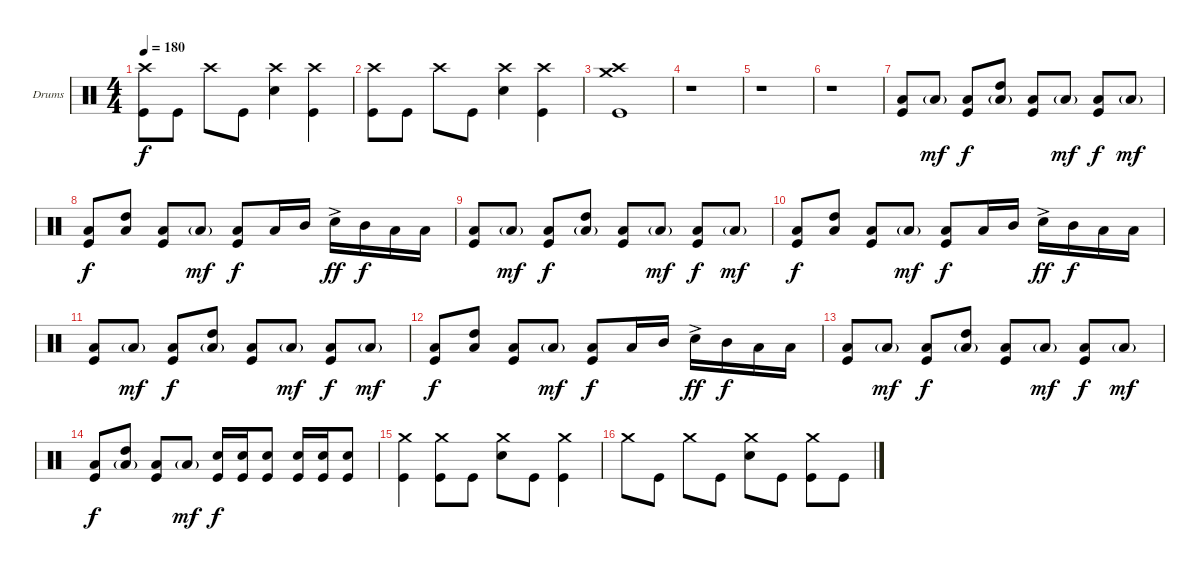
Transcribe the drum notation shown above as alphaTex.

\defaultSystemsLayout 4
\bracketExtendMode groupsimilarinstruments
\firstSystemTrackNameOrientation horizontal
\otherSystemsTrackNameOrientation horizontal
\track ("Барабаны" "Drums") {instrument percussion}
\staff {score}
\articulation defaults
\ts (4 4)
\tempo 180
\clef neutral
\scale
0.333333
\ks c
("Crash high (hit)" "Kick (hit)").8{dy f} "Kick (hit)".8 "Crash high (hit)".8 "Kick (hit)".8 ("Crash high (hit)" "Snare (hit) 2").4 ("Crash high (hit)" "Kick (hit)").4 |
\scale
0.333333 ("Crash high (hit)" "Kick (hit)").8 "Kick (hit)".8 "Crash high (hit)".8 "Kick (hit)".8 ("Crash high (hit)" "Snare (hit) 2").4 ("Crash high (hit)" "Kick (hit)").4 |
\scale
0.333333 ("Crash medium (hit)" "Crash high (hit)" "Kick (hit)").1 |
\scale
0.333333 r.1 |
\scale
0.333333 r.1 |
\scale
0.333333 r.1 |
\scale
0.333333 ("Low Tom (hit)" "Kick (hit)").8 "Low Tom (hit)"{g}.8{dy mf} ("Low Tom (hit)" "Kick (hit)").8{dy f} ("Low Tom (hit)"{g} "High Tom (hit)").8 ("Low Tom (hit)" "Kick (hit)").8 "Low Tom (hit)"{g}.8{dy mf} ("Low Tom (hit)" "Kick (hit)").8{dy f} "Low Tom (hit)"{g}.8{dy mf} |
\scale
0.333333 ("Low Tom (hit)" "Kick (hit)").8{dy f} ("Low Tom (hit)" "High Tom (hit)").8 ("Low Tom (hit)" "Kick (hit)").8 "Low Tom (hit)"{g}.8{dy mf} ("Low Tom (hit)" "Kick (hit)").8{dy f} "Low Tom (hit)".16 "Mid Tom (hit)".16 "Snare (hit) 2"{ac}.16{dy ff} "Mid Tom (hit)".16{dy f} "Low Tom (hit)".16 "Low Tom (hit)".16 |
\scale
0.333333 ("Low Tom (hit)" "Kick (hit)").8 "Low Tom (hit)"{g}.8{dy mf} ("Low Tom (hit)" "Kick (hit)").8{dy f} ("Low Tom (hit)"{g} "High Tom (hit)").8 ("Low Tom (hit)" "Kick (hit)").8 "Low Tom (hit)"{g}.8{dy mf} ("Low Tom (hit)" "Kick (hit)").8{dy f} "Low Tom (hit)"{g}.8{dy mf} |
\scale
0.333333 ("Low Tom (hit)" "Kick (hit)").8{dy f} ("Low Tom (hit)" "High Tom (hit)").8 ("Low Tom (hit)" "Kick (hit)").8 "Low Tom (hit)"{g}.8{dy mf} ("Low Tom (hit)" "Kick (hit)").8{dy f} "Low Tom (hit)".16 "Mid Tom (hit)".16 "Snare (hit) 2"{ac}.16{dy ff} "Mid Tom (hit)".16{dy f} "Low Tom (hit)".16 "Low Tom (hit)".16 |
\scale
0.333333 ("Low Tom (hit)" "Kick (hit)").8 "Low Tom (hit)"{g}.8{dy mf} ("Low Tom (hit)" "Kick (hit)").8{dy f} ("Low Tom (hit)"{g} "High Tom (hit)").8 ("Low Tom (hit)" "Kick (hit)").8 "Low Tom (hit)"{g}.8{dy mf} ("Low Tom (hit)" "Kick (hit)").8{dy f} "Low Tom (hit)"{g}.8{dy mf} |
\scale
0.333333 ("Low Tom (hit)" "Kick (hit)").8{dy f} ("Low Tom (hit)" "High Tom (hit)").8 ("Low Tom (hit)" "Kick (hit)").8 "Low Tom (hit)"{g}.8{dy mf} ("Low Tom (hit)" "Kick (hit)").8{dy f} "Low Tom (hit)".16 "Mid Tom (hit)".16 "Snare (hit) 2"{ac}.16{dy ff} "Mid Tom (hit)".16{dy f} "Low Tom (hit)".16 "Low Tom (hit)".16 |
\scale
0.333333 ("Low Tom (hit)" "Kick (hit)").8 "Low Tom (hit)"{g}.8{dy mf} ("Low Tom (hit)" "Kick (hit)").8{dy f} ("Low Tom (hit)"{g} "High Tom (hit)").8 ("Low Tom (hit)" "Kick (hit)").8 "Low Tom (hit)"{g}.8{dy mf} ("Low Tom (hit)" "Kick (hit)").8{dy f} "Low Tom (hit)"{g}.8{dy mf} |
\scale
0.333333 ("Low Tom (hit)" "Kick (hit)").8{dy f} ("Low Tom (hit)"{g} "High Tom (hit)").8 ("Low Tom (hit)" "Kick (hit)").8 "Low Tom (hit)"{g}.8{dy mf} ("Snare (hit) 2" "Kick (hit)").16{dy f} ("Snare (hit) 2" "Kick (hit)").16 ("Snare (hit) 2" "Kick (hit)").8 ("Snare (hit) 2" "Kick (hit)").16 ("Snare (hit) 2" "Kick (hit)").16 ("Snare (hit) 2" "Kick (hit)").8 |
\scale
0.333333 ("Crash medium (hit)" "Kick (hit)").4 ("Crash medium (hit)" "Kick (hit)").8 "Kick (hit)".8 ("Crash medium (hit)" "Snare (hit) 2").8 "Kick (hit)".8 ("Crash medium (hit)" "Kick (hit)").4 |
\scale
0.333333 "Crash medium (hit)".8 "Kick (hit)".8 "Crash medium (hit)".8 "Kick (hit)".8 ("Crash medium (hit)" "Snare (hit) 2").8 "Kick (hit)".8 ("Crash medium (hit)" "Kick (hit)").8 "Kick (hit)".8
